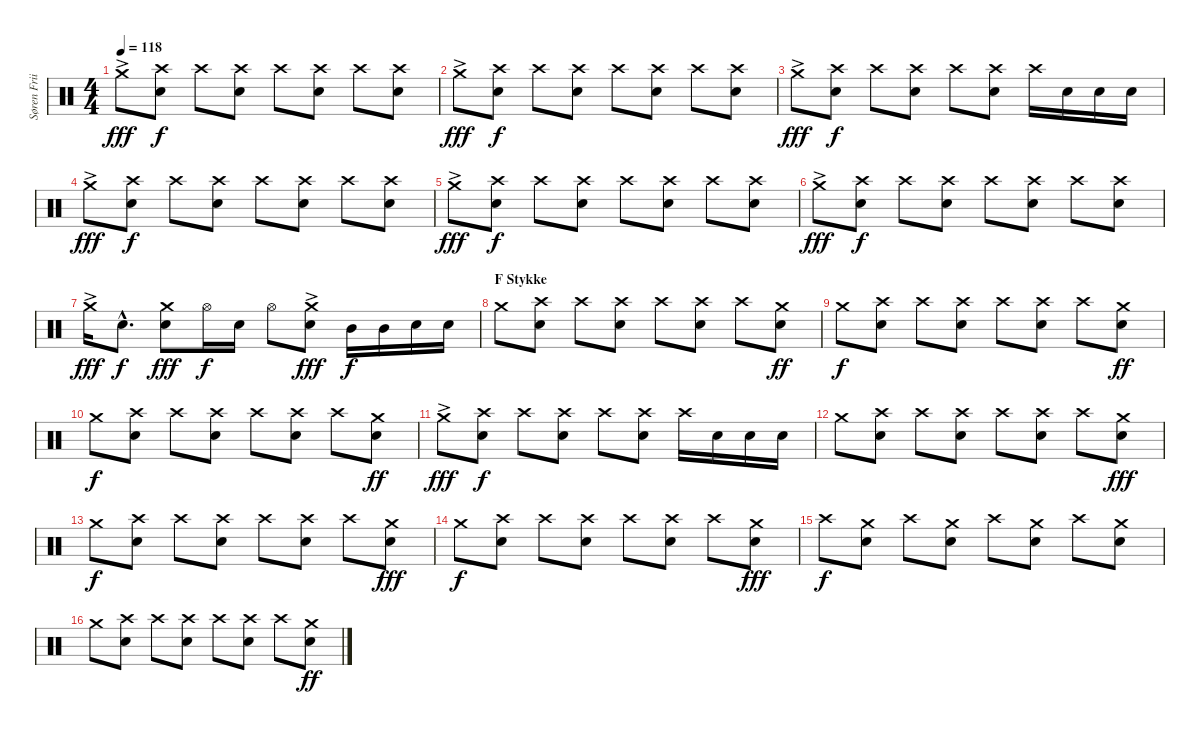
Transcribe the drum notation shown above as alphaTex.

\track ("Søren Friis (Drums)" "Søren Frii") {instrument percussion}
\staff {score}
\articulation defaults
\ts (4 4)
\tempo 118
\clef neutral
\ks c "Crash medium (hit)"{ac}.8{dy fff}
("Crash high (hit)" "Snare (hit) 2").8{dy f} "Crash high (hit)".8 ("Crash high (hit)" "Snare (hit) 2").8 "Crash high (hit)".8 ("Crash high (hit)" "Snare (hit) 2").8 "Crash high (hit)".8 ("Crash high (hit)" "Snare (hit) 2").8 |
"Crash medium (hit)"{ac}.8{dy fff} ("Crash high (hit)" "Snare (hit) 2").8{dy f} "Crash high (hit)".8 ("Crash high (hit)" "Snare (hit) 2").8 "Crash high (hit)".8 ("Crash high (hit)" "Snare (hit) 2").8 "Crash high (hit)".8 ("Crash high (hit)" "Snare (hit) 2").8 |
"Crash medium (hit)"{ac}.8{dy fff} ("Crash high (hit)" "Snare (hit) 2").8{dy f} "Crash high (hit)".8 ("Crash high (hit)" "Snare (hit) 2").8 "Crash high (hit)".8 ("Crash high (hit)" "Snare (hit) 2").8 "Crash high (hit)".16 "Snare (hit) 2".16 "Snare (hit) 2".16 "Snare (hit) 2".16 |
"Crash medium (hit)"{ac}.8{dy fff} ("Crash high (hit)" "Snare (hit) 2").8{dy f} "Crash high (hit)".8 ("Crash high (hit)" "Snare (hit) 2").8 "Crash high (hit)".8 ("Crash high (hit)" "Snare (hit) 2").8 "Crash high (hit)".8 ("Crash high (hit)" "Snare (hit) 2").8 |
"Crash medium (hit)"{ac}.8{dy fff} ("Crash high (hit)" "Snare (hit) 2").8{dy f} "Crash high (hit)".8 ("Crash high (hit)" "Snare (hit) 2").8 "Crash high (hit)".8 ("Crash high (hit)" "Snare (hit) 2").8 "Crash high (hit)".8 ("Crash high (hit)" "Snare (hit) 2").8 |
"Crash medium (hit)"{ac}.8{dy fff} ("Crash high (hit)" "Snare (hit) 2").8{dy f} "Crash high (hit)".8 ("Crash high (hit)" "Snare (hit) 2").8 "Crash high (hit)".8 ("Crash high (hit)" "Snare (hit) 2").8 "Crash high (hit)".8 ("Crash high (hit)" "Snare (hit) 2").8 |
"Crash medium (hit)"{ac}.16{dy fff} "Snare (hit) 2"{hac}.8{d dy f} ("Crash medium (hit)" "Snare (hit) 2").8{dy fff} "Hi-Hat (open)".16{dy f} "Snare (hit) 2".16 "Hi-Hat (open)".8 ("Crash medium (hit)"{ac} "Snare (hit) 2").8{dy fff} "Mid Tom (hit)".16{dy f} "Mid Tom (hit)".16 "Snare (hit) 2".16 "Snare (hit) 2".16 |
\section ("" "F Stykke")
"Crash medium (hit)".8 ("Crash high (hit)" "Snare (hit) 2").8 "Crash high (hit)".8 ("Crash high (hit)" "Snare (hit) 2").8 "Crash high (hit)".8 ("Crash high (hit)" "Snare (hit) 2").8 "Crash high (hit)".8 ("Crash medium (hit)" "Snare (hit) 2").8{dy ff} |
"Crash medium (hit)".8{dy f} ("Crash high (hit)" "Snare (hit) 2").8 "Crash high (hit)".8 ("Crash high (hit)" "Snare (hit) 2").8 "Crash high (hit)".8 ("Crash high (hit)" "Snare (hit) 2").8 "Crash high (hit)".8 ("Crash medium (hit)" "Snare (hit) 2").8{dy ff} |
"Crash medium (hit)".8{dy f} ("Crash high (hit)" "Snare (hit) 2").8 "Crash high (hit)".8 ("Crash high (hit)" "Snare (hit) 2").8 "Crash high (hit)".8 ("Crash high (hit)" "Snare (hit) 2").8 "Crash high (hit)".8 ("Crash medium (hit)" "Snare (hit) 2").8{dy ff} |
"Crash medium (hit)"{ac}.8{dy fff} ("Crash high (hit)" "Snare (hit) 2").8{dy f} "Crash high (hit)".8 ("Crash high (hit)" "Snare (hit) 2").8 "Crash high (hit)".8 ("Crash high (hit)" "Snare (hit) 2").8 "Crash high (hit)".16 "Snare (hit) 2".16 "Snare (hit) 2".16 "Snare (hit) 2".16 |
"Crash medium (hit)".8 ("Crash high (hit)" "Snare (hit) 2").8 "Crash high (hit)".8 ("Crash high (hit)" "Snare (hit) 2").8 "Crash high (hit)".8 ("Crash high (hit)" "Snare (hit) 2").8 "Crash high (hit)".8 ("Crash medium (hit)" "Snare (hit) 2").8{dy fff} |
"Crash medium (hit)".8{dy f} ("Crash high (hit)" "Snare (hit) 2").8 "Crash high (hit)".8 ("Crash high (hit)" "Snare (hit) 2").8 "Crash high (hit)".8 ("Crash high (hit)" "Snare (hit) 2").8 "Crash high (hit)".8 ("Crash medium (hit)" "Snare (hit) 2").8{dy fff} |
"Crash medium (hit)".8{dy f} ("Crash high (hit)" "Snare (hit) 2").8 "Crash high (hit)".8 ("Crash high (hit)" "Snare (hit) 2").8 "Crash high (hit)".8 ("Crash high (hit)" "Snare (hit) 2").8 "Crash high (hit)".8 ("Crash medium (hit)" "Snare (hit) 2").8{dy fff} |
"Crash high (hit)".8{dy f} ("Crash medium (hit)" "Snare (hit) 2").8 "Crash high (hit)".8 ("Crash medium (hit)" "Snare (hit) 2").8 "Crash high (hit)".8 ("Crash medium (hit)" "Snare (hit) 2").8 "Crash high (hit)".8 ("Crash medium (hit)" "Snare (hit) 2").8 |
"Crash medium (hit)".8 ("Crash high (hit)" "Snare (hit) 2").8 "Crash high (hit)".8 ("Crash high (hit)" "Snare (hit) 2").8 "Crash high (hit)".8 ("Crash high (hit)" "Snare (hit) 2").8 "Crash high (hit)".8 ("Crash medium (hit)" "Snare (hit) 2").8{dy ff}
